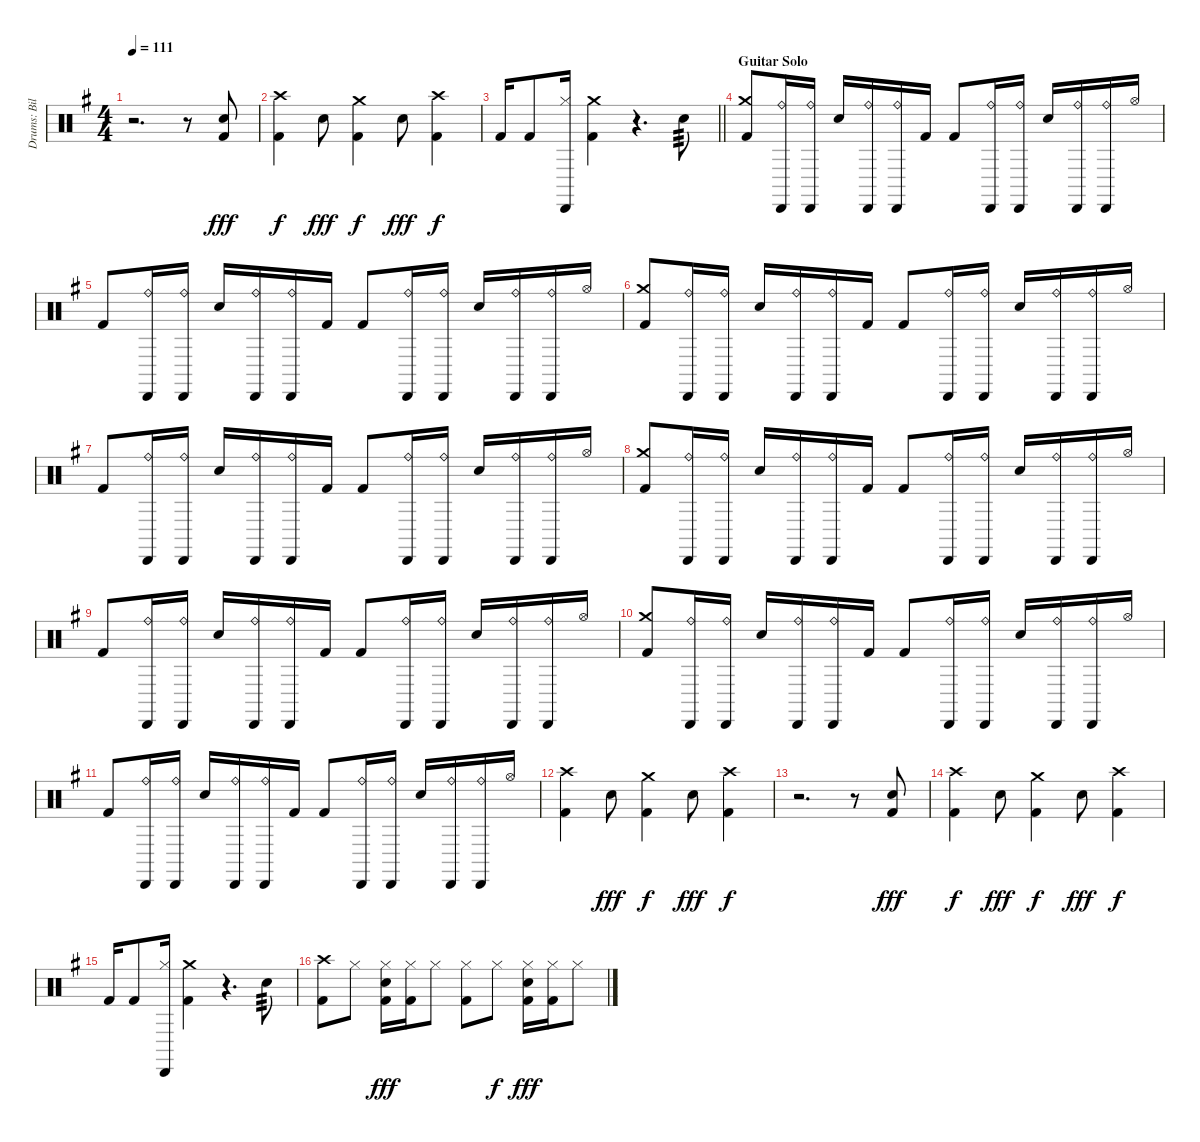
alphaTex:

\track ("Drums: Bill" "Drums: Bil") {instrument percussion}
\staff {score}
\articulation defaults
\ts (4 4)
\tempo 111
\clef neutral
\ks g
r.2{d dy f} r.8 ("Electric Snare (hit)" "Kick (hit) 2").8{dy fff} |
("Crash high (hit)" "Kick (hit) 2").4{dy f} "Electric Snare (hit)".8{dy fff} ("Crash medium (hit)" "Kick (hit) 2").4{dy f} "Electric Snare (hit)".8{dy fff} ("Crash high (hit)" "Kick (hit) 2").4{dy f} |
\barLineRight lightlight "Kick (hit) 2".16 "Kick (hit) 2".8
("Cabasa (hit)" "Hi-Hat (closed)").16 ("Crash medium (hit)" "Kick (hit) 2").4 r.4{d} "Snare (hit) 2".8{tp 3} |
\section ("" "Guitar Solo")
("Crash medium (hit)" "Kick (hit) 2").8 ("Cabasa (hit)" "Ride (bell)").16 ("Cabasa (hit)" "Ride (bell)").16 "Snare (hit) 2".16 ("Cabasa (hit)" "Ride (bell)").16 ("Cabasa (hit)" "Ride (bell)").16 "Kick (hit) 2".16 "Kick (hit) 2".8 ("Cabasa (hit)" "Ride (bell)").16 ("Cabasa (hit)" "Ride (bell)").16 "Snare (hit) 2".16 ("Cabasa (hit)" "Ride (bell)").16 ("Cabasa (hit)" "Ride (bell)").16 "Hi-Hat (open)".16 |
"Kick (hit) 2".8 ("Cabasa (hit)" "Ride (bell)").16 ("Cabasa (hit)" "Ride (bell)").16 "Snare (hit) 2".16 ("Cabasa (hit)" "Ride (bell)").16 ("Cabasa (hit)" "Ride (bell)").16 "Kick (hit) 2".16 "Kick (hit) 2".8 ("Cabasa (hit)" "Ride (bell)").16 ("Cabasa (hit)" "Ride (bell)").16 "Snare (hit) 2".16 ("Cabasa (hit)" "Ride (bell)").16 ("Cabasa (hit)" "Ride (bell)").16 "Hi-Hat (open)".16 |
("Crash medium (hit)" "Kick (hit) 2").8 ("Cabasa (hit)" "Ride (bell)").16 ("Cabasa (hit)" "Ride (bell)").16 "Snare (hit) 2".16 ("Cabasa (hit)" "Ride (bell)").16 ("Cabasa (hit)" "Ride (bell)").16 "Kick (hit) 2".16 "Kick (hit) 2".8 ("Cabasa (hit)" "Ride (bell)").16 ("Cabasa (hit)" "Ride (bell)").16 "Snare (hit) 2".16 ("Cabasa (hit)" "Ride (bell)").16 ("Cabasa (hit)" "Ride (bell)").16 "Hi-Hat (open)".16 |
"Kick (hit) 2".8 ("Cabasa (hit)" "Ride (bell)").16 ("Cabasa (hit)" "Ride (bell)").16 "Snare (hit) 2".16 ("Cabasa (hit)" "Ride (bell)").16 ("Cabasa (hit)" "Ride (bell)").16 "Kick (hit) 2".16 "Kick (hit) 2".8 ("Cabasa (hit)" "Ride (bell)").16 ("Cabasa (hit)" "Ride (bell)").16 "Snare (hit) 2".16 ("Cabasa (hit)" "Ride (bell)").16 ("Cabasa (hit)" "Ride (bell)").16 "Hi-Hat (open)".16 |
("Crash medium (hit)" "Kick (hit) 2").8 ("Cabasa (hit)" "Ride (bell)").16 ("Cabasa (hit)" "Ride (bell)").16 "Snare (hit) 2".16 ("Cabasa (hit)" "Ride (bell)").16 ("Cabasa (hit)" "Ride (bell)").16 "Kick (hit) 2".16 "Kick (hit) 2".8 ("Cabasa (hit)" "Ride (bell)").16 ("Cabasa (hit)" "Ride (bell)").16 "Snare (hit) 2".16 ("Cabasa (hit)" "Ride (bell)").16 ("Cabasa (hit)" "Ride (bell)").16 "Hi-Hat (open)".16 |
"Kick (hit) 2".8 ("Cabasa (hit)" "Ride (bell)").16 ("Cabasa (hit)" "Ride (bell)").16 "Snare (hit) 2".16 ("Cabasa (hit)" "Ride (bell)").16 ("Cabasa (hit)" "Ride (bell)").16 "Kick (hit) 2".16 "Kick (hit) 2".8 ("Cabasa (hit)" "Ride (bell)").16 ("Cabasa (hit)" "Ride (bell)").16 "Snare (hit) 2".16 ("Cabasa (hit)" "Ride (bell)").16 ("Cabasa (hit)" "Ride (bell)").16 "Hi-Hat (open)".16 |
("Crash medium (hit)" "Kick (hit) 2").8 ("Cabasa (hit)" "Ride (bell)").16 ("Cabasa (hit)" "Ride (bell)").16 "Snare (hit) 2".16 ("Cabasa (hit)" "Ride (bell)").16 ("Cabasa (hit)" "Ride (bell)").16 "Kick (hit) 2".16 "Kick (hit) 2".8 ("Cabasa (hit)" "Ride (bell)").16 ("Cabasa (hit)" "Ride (bell)").16 "Snare (hit) 2".16 ("Cabasa (hit)" "Ride (bell)").16 ("Cabasa (hit)" "Ride (bell)").16 "Hi-Hat (open)".16 |
"Kick (hit) 2".8 ("Cabasa (hit)" "Ride (bell)").16 ("Cabasa (hit)" "Ride (bell)").16 "Snare (hit) 2".16 ("Cabasa (hit)" "Ride (bell)").16 ("Cabasa (hit)" "Ride (bell)").16 "Kick (hit) 2".16 "Kick (hit) 2".8 ("Cabasa (hit)" "Ride (bell)").16 ("Cabasa (hit)" "Ride (bell)").16 "Snare (hit) 2".16 ("Cabasa (hit)" "Ride (bell)").16 ("Cabasa (hit)" "Ride (bell)").16 "Hi-Hat (open)".16 |
("Crash high (hit)" "Kick (hit) 2").4 "Electric Snare (hit)".8{dy fff} ("Crash medium (hit)" "Kick (hit) 2").4{dy f} "Electric Snare (hit)".8{dy fff} ("Crash high (hit)" "Kick (hit) 2").4{dy f} |
r.2{d} r.8 ("Electric Snare (hit)" "Kick (hit) 2").8{dy fff} |
("Crash high (hit)" "Kick (hit) 2").4{dy f} "Electric Snare (hit)".8{dy fff} ("Crash medium (hit)" "Kick (hit) 2").4{dy f} "Electric Snare (hit)".8{dy fff} ("Crash high (hit)" "Kick (hit) 2").4{dy f} |
"Kick (hit) 2".16 "Kick (hit) 2".8 ("Cabasa (hit)" "Hi-Hat (closed)").16 ("Crash medium (hit)" "Kick (hit) 2").4 r.4{d} "Snare (hit) 2".8{tp 3} |
("Crash high (hit)" "Kick (hit) 2").8 "Hi-Hat (closed)".8 ("Hi-Hat (closed)" "Electric Snare (hit)" "Kick (hit) 2").16{dy fff} ("Hi-Hat (closed)" "Kick (hit) 2").16 "Hi-Hat (closed)".8 ("Hi-Hat (closed)" "Kick (hit) 2").8 "Hi-Hat (closed)".8{dy f} ("Hi-Hat (closed)" "Electric Snare (hit)" "Kick (hit) 2").16{dy fff} ("Hi-Hat (closed)" "Kick (hit) 2").16 "Hi-Hat (closed)".8
